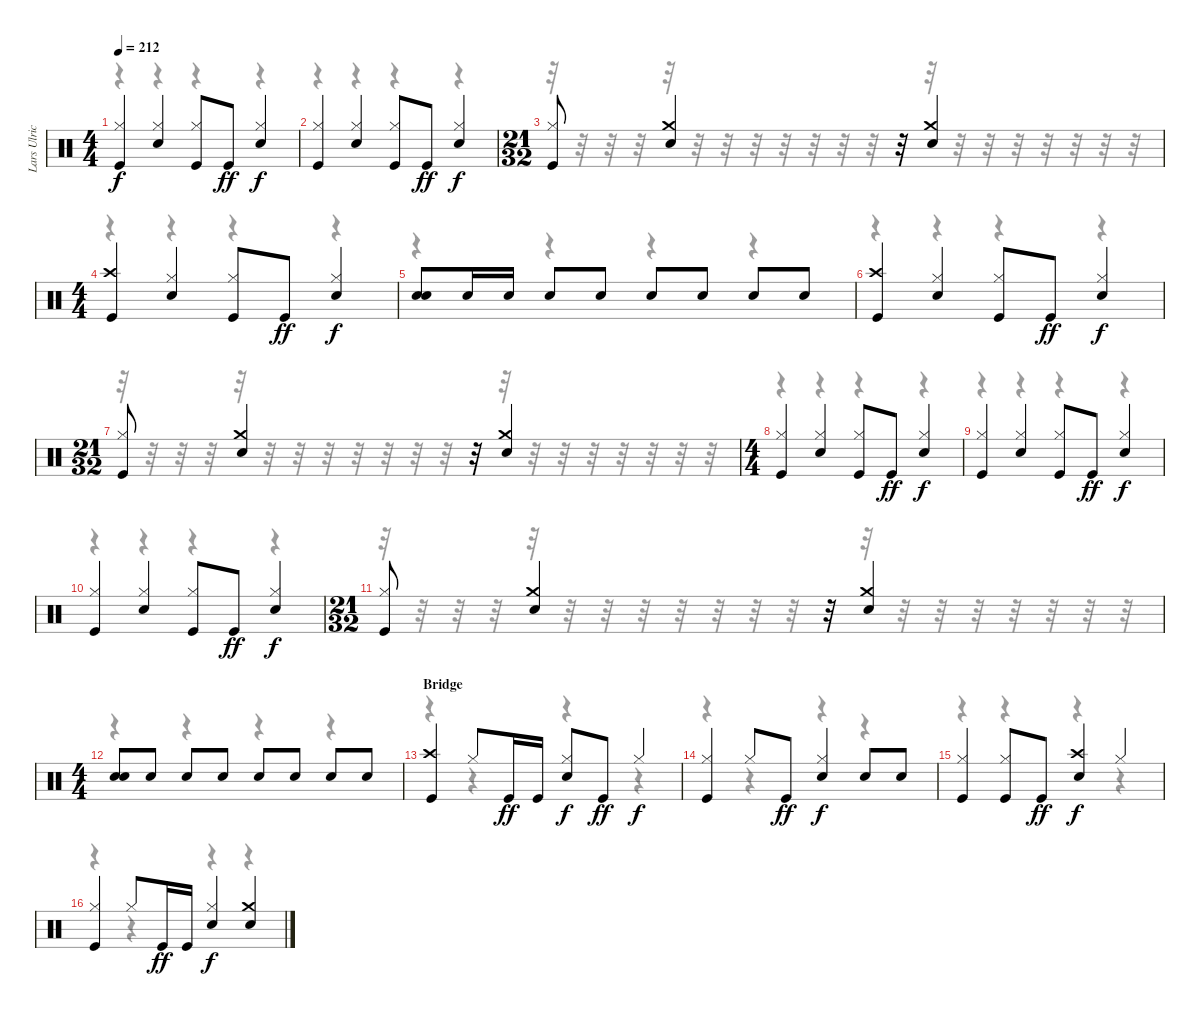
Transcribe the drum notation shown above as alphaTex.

\track ("Lars Ulrich" "Lars Ulric") {instrument percussion}
\staff {score}
\articulation defaults
\voice
\ts (4 4)
\tempo 212
\clef neutral
\ks c
("Hi-Hat (closed)" "Kick (hit)").4{dy f} ("Hi-Hat (closed)" "Snare (hit) 2").4 ("Hi-Hat (closed)" "Kick (hit)").8 "Kick (hit)".8{dy ff} ("Hi-Hat (closed)" "Snare (hit) 2").4{dy f} |
("Hi-Hat (closed)" "Kick (hit)").4 ("Hi-Hat (closed)" "Snare (hit) 2").4 ("Hi-Hat (closed)" "Kick (hit)").8 "Kick (hit)".8{dy ff} ("Hi-Hat (closed)" "Snare (hit) 2").4{dy f} |
\ts (21 32)
("Hi-Hat (closed)" "Kick (hit)").8 ("Crash medium (hit)" "Snare (hit) 2").4 r.32 ("Crash medium (hit)" "Snare (hit) 2").4 |
\ts (4 4)
("Crash high (hit)" "Kick (hit)").4 ("Hi-Hat (closed)" "Snare (hit) 2").4 ("Hi-Hat (closed)" "Kick (hit)").8 "Kick (hit)".8{dy ff} ("Hi-Hat (closed)" "Snare (hit) 2").4{dy f} |
("Snare (hit) 2" "Snare (hit) 2").8 "Snare (hit) 2".16 "Snare (hit) 2".16 "Snare (hit) 2".8 "Snare (hit) 2".8 "Snare (hit) 2".8 "Snare (hit) 2".8 "Snare (hit) 2".8 "Snare (hit) 2".8 |
("Crash high (hit)" "Kick (hit)").4 ("Hi-Hat (closed)" "Snare (hit) 2").4 ("Hi-Hat (closed)" "Kick (hit)").8 "Kick (hit)".8{dy ff} ("Hi-Hat (closed)" "Snare (hit) 2").4{dy f} |
\ts (21 32)
("Hi-Hat (closed)" "Kick (hit)").8 ("Crash medium (hit)" "Snare (hit) 2").4 r.32 ("Crash medium (hit)" "Snare (hit) 2").4 |
\ts (4 4)
("Hi-Hat (closed)" "Kick (hit)").4 ("Hi-Hat (closed)" "Snare (hit) 2").4 ("Hi-Hat (closed)" "Kick (hit)").8 "Kick (hit)".8{dy ff} ("Hi-Hat (closed)" "Snare (hit) 2").4{dy f} |
("Hi-Hat (closed)" "Kick (hit)").4 ("Hi-Hat (closed)" "Snare (hit) 2").4 ("Hi-Hat (closed)" "Kick (hit)").8 "Kick (hit)".8{dy ff} ("Hi-Hat (closed)" "Snare (hit) 2").4{dy f} |
("Hi-Hat (closed)" "Kick (hit)").4 ("Hi-Hat (closed)" "Snare (hit) 2").4 ("Hi-Hat (closed)" "Kick (hit)").8 "Kick (hit)".8{dy ff} ("Hi-Hat (closed)" "Snare (hit) 2").4{dy f} |
\ts (21 32)
("Hi-Hat (closed)" "Kick (hit)").8 ("Crash medium (hit)" "Snare (hit) 2").4 r.32 ("Crash medium (hit)" "Snare (hit) 2").4 |
\ts (4 4)
("Snare (hit) 2" "Snare (hit) 2").8 "Snare (hit) 2".8 "Snare (hit) 2".8 "Snare (hit) 2".8 "Snare (hit) 2".8 "Snare (hit) 2".8 "Snare (hit) 2".8 "Snare (hit) 2".8 |
\section ("" "Bridge")
("Crash high (hit)" "Kick (hit)").4 "Hi-Hat (closed)".8 "Kick (hit)".16{dy ff} "Kick (hit)".16 ("Hi-Hat (closed)" "Snare (hit) 2").8{dy f} "Kick (hit)".8{dy ff} "Hi-Hat (closed)".4{dy f} |
("Hi-Hat (closed)" "Kick (hit)").4 "Hi-Hat (closed)".8 "Kick (hit)".8{dy ff} ("Hi-Hat (closed)" "Snare (hit) 2").4{dy f} "Snare (hit) 2".8 "Snare (hit) 2".8 |
("Hi-Hat (closed)" "Kick (hit)").4 ("Hi-Hat (closed)" "Kick (hit)").8 "Kick (hit)".8{dy ff} ("Crash high (hit)" "Snare (hit) 2").4{dy f} "Hi-Hat (closed)".4 |
("Hi-Hat (closed)" "Kick (hit)").4 "Hi-Hat (closed)".8 "Kick (hit)".16{dy ff} "Kick (hit)".16 ("Hi-Hat (closed)" "Snare (hit) 2").4{dy f} ("Crash medium (hit)" "Snare (hit) 2").4
\voice
\clef neutral
\ottava regular
\simile none
\ks c
r.4{dy f} r.4 r.4 r.4 |
r.4 r.4 r.4 r.4 |
r.32 r.32 r.32 r.32 r.32 r.32 r.32 r.32 r.32 r.32 r.32 r.32 r.32 r.32 r.32 r.32 r.32 r.32 r.32 r.32 r.32 |
r.4 r.4 r.4 r.4 |
r.4 r.4 r.4 r.4 |
r.4 r.4 r.4 r.4 |
r.32 r.32 r.32 r.32 r.32 r.32 r.32 r.32 r.32 r.32 r.32 r.32 r.32 r.32 r.32 r.32 r.32 r.32 r.32 r.32 r.32 |
r.4 r.4 r.4 r.4 |
r.4 r.4 r.4 r.4 |
r.4 r.4 r.4 r.4 |
r.32 r.32 r.32 r.32 r.32 r.32 r.32 r.32 r.32 r.32 r.32 r.32 r.32 r.32 r.32 r.32 r.32 r.32 r.32 r.32 r.32 |
r.4 r.4 r.4 r.4 |
r.4 r.4 r.4 r.4 |
r.4 r.4 r.4 r.4 |
r.4 r.4 r.4 r.4 |
r.4 r.4 r.4 r.4
